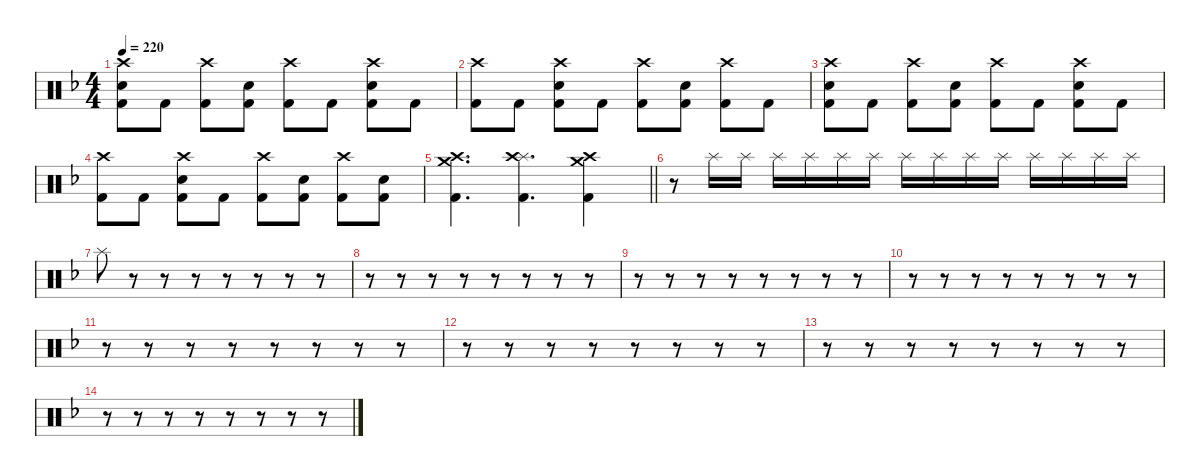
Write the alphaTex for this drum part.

\hideDynamics
\bracketExtendMode nobrackets
\singleTrackTrackNamePolicy hidden
\multiTrackTrackNamePolicy hidden
\firstSystemTrackNameMode fullname
\firstSystemTrackNameOrientation horizontal
\otherSystemsTrackNameOrientation horizontal
\track ("Drumkit" "Drums") {instrument percussion}
\staff {score}
\articulation defaults
\ts (4 4)
\tempo 220
\clef neutral
\ks dminor
("Crash high (hit)"{acc forcenatural} "Snare (hit) 2"{acc forcenatural} "Kick (hit) 2"{acc forcenatural}).8{dy mf beam Down} "Kick (hit) 2"{acc forcenatural}.8{dy f beam Down} ("Crash high (hit)"{acc forcenatural} "Kick (hit) 2"{acc forcenatural}).8{dy mf beam Down} ("Snare (hit) 2"{acc forcenatural} "Kick (hit) 2"{acc forcenatural}).8{dy f beam Down} ("Crash high (hit)"{acc forcenatural} "Kick (hit) 2"{acc forcenatural}).8{dy mf beam Down} "Kick (hit) 2"{acc forcenatural}.8{dy f beam Down} ("Crash high (hit)"{acc forcenatural} "Snare (hit) 2"{acc forcenatural} "Kick (hit) 2"{acc forcenatural}).8{dy mf beam Down} "Kick (hit) 2"{acc forcenatural}.8{dy f beam Down} |
("Crash high (hit)"{acc forcenatural} "Kick (hit) 2"{acc forcenatural}).8{dy mf beam Down} "Kick (hit) 2"{acc forcenatural}.8{dy f beam Down} ("Crash high (hit)"{acc forcenatural} "Snare (hit) 2"{acc forcenatural} "Kick (hit) 2"{acc forcenatural}).8{dy mf beam Down} "Kick (hit) 2"{acc forcenatural}.8{dy f beam Down} ("Crash high (hit)"{acc forcenatural} "Kick (hit) 2"{acc forcenatural}).8{dy mf beam Down} ("Snare (hit) 2"{acc forcenatural} "Kick (hit) 2"{acc forcenatural}).8{dy f beam Down} ("Crash high (hit)"{acc forcenatural} "Kick (hit) 2"{acc forcenatural}).8{dy mf beam Down} "Kick (hit) 2"{acc forcenatural}.8{dy f beam Down} |
("Crash high (hit)"{acc forcenatural} "Snare (hit) 2"{acc forcenatural} "Kick (hit) 2"{acc forcenatural}).8{dy mf beam Down} "Kick (hit) 2"{acc forcenatural}.8{dy f beam Down} ("Crash high (hit)"{acc forcenatural} "Kick (hit) 2"{acc forcenatural}).8{dy mf beam Down} ("Snare (hit) 2"{acc forcenatural} "Kick (hit) 2"{acc forcenatural}).8{dy f beam Down} ("Crash high (hit)"{acc forcenatural} "Kick (hit) 2"{acc forcenatural}).8{dy mf beam Down} "Kick (hit) 2"{acc forcenatural}.8{dy f beam Down} ("Crash high (hit)"{acc forcenatural} "Snare (hit) 2"{acc forcenatural} "Kick (hit) 2"{acc forcenatural}).8{dy mf beam Down} "Kick (hit) 2"{acc forcenatural}.8{dy f beam Down} |
("Crash high (hit)"{acc forcenatural} "Kick (hit) 2"{acc forcenatural}).8{dy mf beam Down} "Kick (hit) 2"{acc forcenatural}.8{dy f beam Down} ("Crash high (hit)"{acc forcenatural} "Snare (hit) 2"{acc forcenatural} "Kick (hit) 2"{acc forcenatural}).8{dy mf beam Down} "Kick (hit) 2"{acc forcenatural}.8{dy f beam Down} ("Crash high (hit)"{acc forcenatural} "Kick (hit) 2"{acc forcenatural}).8{dy mf beam Down} ("Snare (hit) 2"{acc forcenatural} "Kick (hit) 2"{acc forcenatural}).8{dy f beam Down} ("Crash high (hit)"{acc forcenatural} "Kick (hit) 2"{acc forcenatural}).8{dy mf beam Down} ("Snare (hit) 2"{acc forcenatural} "Kick (hit) 2"{acc forcenatural}).8{dy f beam Down} |
\barLineRight lightlight
("Crash medium (hit)"{acc forcenatural} "Crash high (hit)"{acc forcenatural} "Kick (hit) 2"{acc forcenatural}).4{d beam Down} ("Splash (hit)"{acc forcenatural} "Crash high (hit)"{acc forcenatural} "Kick (hit) 2"{acc forcenatural}).4{d beam Down} ("Crash medium (hit)"{acc forcenatural} "Crash high (hit)"{acc forcenatural} "Kick (hit) 2"{acc forcenatural}).4{beam Down} |
r.8{beam Down} "Splash (hit)"{acc forcenatural}.16{dy pp beam Down} "Splash (hit)"{acc forcenatural}.16{beam Down} "Splash (hit)"{acc forcenatural}.16{dy p beam Down} "Splash (hit)"{acc forcenatural}.16{beam Down} "Splash (hit)"{acc forcenatural}.16{dy mp beam Down} "Splash (hit)"{acc forcenatural}.16{beam Down} "Splash (hit)"{acc forcenatural}.16{dy mf beam Down} "Splash (hit)"{acc forcenatural}.16{beam Down} "Splash (hit)"{acc forcenatural}.16{dy mp beam Down} "Splash (hit)"{acc forcenatural}.16{beam Down} "Splash (hit)"{acc forcenatural}.16{dy p beam Down} "Splash (hit)"{acc forcenatural}.16{beam Down} "Splash (hit)"{acc forcenatural}.16{dy pp beam Down} "Splash (hit)"{acc forcenatural}.16{beam Down} |
"Splash (hit)"{acc forcenatural}.8{dy p beam Down} r.8{beam Down} r.8{beam Down} r.8{beam Down} r.8{beam Down} r.8{beam Down} r.8{beam Down} r.8{beam Down} |
r.8{beam Down} r.8{beam Down} r.8{beam Down} r.8{beam Down} r.8{beam Down} r.8{beam Down} r.8{beam Down} r.8{beam Down} |
r.8{beam Down} r.8{beam Down} r.8{beam Down} r.8{beam Down} r.8{beam Down} r.8{beam Down} r.8{beam Down} r.8{beam Down} |
r.8{beam Down} r.8{beam Down} r.8{beam Down} r.8{beam Down} r.8{beam Down} r.8{beam Down} r.8{beam Down} r.8{beam Down} |
r.8{beam Down} r.8{beam Down} r.8{beam Down} r.8{beam Down} r.8{beam Down} r.8{beam Down} r.8{beam Down} r.8{beam Down} |
r.8{beam Down} r.8{beam Down} r.8{beam Down} r.8{beam Down} r.8{beam Down} r.8{beam Down} r.8{beam Down} r.8{beam Down} |
r.8{beam Down} r.8{beam Down} r.8{beam Down} r.8{beam Down} r.8{beam Down} r.8{beam Down} r.8{beam Down} r.8{beam Down} |
r.8{beam Down} r.8{beam Down} r.8{beam Down} r.8{beam Down} r.8{beam Down} r.8{beam Down} r.8{beam Down} r.8{beam Down}
